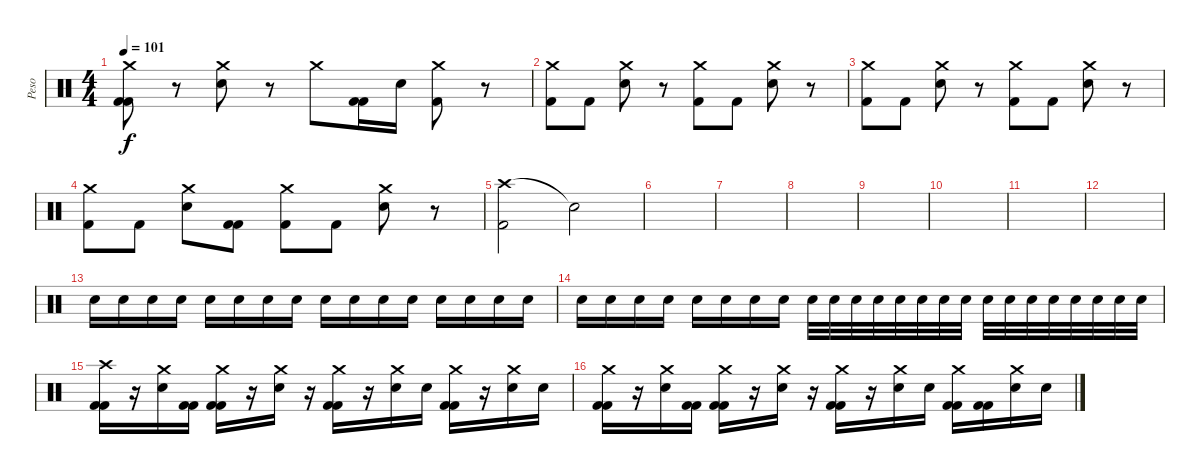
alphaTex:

\track ("Peso" "Peso") {instrument percussion}
\staff {score}
\articulation defaults
\ts (4 4)
\tempo 101
\clef neutral
\ks c
("Crash medium (hit)" "Kick (hit) 2" "Kick (hit) 2").8{dy f} r.8 ("Crash medium (hit)" "Snare (hit) 2").8 r.8 "Crash medium (hit)".8 ("Kick (hit) 2" "Kick (hit) 2").16 "Snare (hit) 2".16 ("Crash medium (hit)" "Kick (hit) 2").8 r.8 |
("Crash medium (hit)" "Kick (hit) 2").8 "Kick (hit) 2".8 ("Crash medium (hit)" "Snare (hit) 2").8 r.8 ("Crash medium (hit)" "Kick (hit) 2").8 "Kick (hit) 2".8 ("Crash medium (hit)" "Snare (hit) 2").8 r.8 |
("Crash medium (hit)" "Kick (hit) 2").8 "Kick (hit) 2".8 ("Crash medium (hit)" "Snare (hit) 2").8 r.8 ("Crash medium (hit)" "Kick (hit) 2").8 "Kick (hit) 2".8 ("Crash medium (hit)" "Snare (hit) 2").8 r.8 |
("Crash medium (hit)" "Kick (hit) 2").8 "Kick (hit) 2".8 ("Crash medium (hit)" "Snare (hit) 2").8 ("Kick (hit) 2" "Kick (hit) 2").8 ("Crash medium (hit)" "Kick (hit) 2").8 "Kick (hit) 2".8 ("Crash medium (hit)" "Snare (hit) 2").8 r.8 |
("Crash high (hit)" "Kick (hit) 2").2 "Snare (hit)"{t}.2 |
|
|
|
|
|
|
|
"Snare (hit) 2".16{volume 8} "Snare (hit) 2".16 "Snare (hit) 2".16 "Snare (hit) 2".16 "Snare (hit) 2".16{volume 10} "Snare (hit) 2".16 "Snare (hit) 2".16 "Snare (hit) 2".16 "Snare (hit) 2".16{volume 12} "Snare (hit) 2".16 "Snare (hit) 2".16 "Snare (hit) 2".16{volume 14} "Snare (hit) 2".16 "Snare (hit) 2".16{volume 15} "Snare (hit) 2".16 "Snare (hit) 2".16 |
"Snare (hit) 2".16 "Snare (hit) 2".16 "Snare (hit) 2".16 "Snare (hit) 2".16 "Snare (hit) 2".16 "Snare (hit) 2".16 "Snare (hit) 2".16 "Snare (hit) 2".16 "Snare (hit) 2".32 "Snare (hit) 2".32 "Snare (hit) 2".32 "Snare (hit) 2".32 "Snare (hit) 2".32 "Snare (hit) 2".32 "Snare (hit) 2".32 "Snare (hit) 2".32 "Snare (hit) 2".32 "Snare (hit) 2".32 "Snare (hit) 2".32 "Snare (hit) 2".32 "Snare (hit) 2".32 "Snare (hit) 2".32 "Snare (hit) 2".32 "Snare (hit) 2".32 |
("Crash high (hit)" "Kick (hit) 2" "Kick (hit) 2").16 r.16 ("Crash medium (hit)" "Snare (hit) 2").16 ("Kick (hit) 2" "Kick (hit) 2").16 ("Crash medium (hit)" "Kick (hit) 2" "Kick (hit) 2").16 r.16 ("Crash medium (hit)" "Snare (hit) 2").16 r.16 ("Crash medium (hit)" "Kick (hit) 2" "Kick (hit) 2").16 r.16 ("Crash medium (hit)" "Snare (hit) 2").16 "Snare (hit) 2".16 ("Crash medium (hit)" "Kick (hit) 2" "Kick (hit) 2").16 r.16 ("Crash medium (hit)" "Snare (hit) 2").16 "Snare (hit) 2".16 |
("Crash medium (hit)" "Kick (hit) 2" "Kick (hit) 2").16 r.16 ("Crash medium (hit)" "Snare (hit) 2").16 ("Kick (hit) 2" "Kick (hit) 2").16 ("Crash medium (hit)" "Kick (hit) 2" "Kick (hit) 2").16 r.16 ("Crash medium (hit)" "Snare (hit) 2").16 r.16 ("Crash medium (hit)" "Kick (hit) 2" "Kick (hit) 2").16 r.16 ("Crash medium (hit)" "Snare (hit) 2").16 "Snare (hit) 2".16 ("Crash medium (hit)" "Kick (hit) 2" "Kick (hit) 2").16 ("Kick (hit) 2" "Kick (hit) 2").16 ("Crash medium (hit)" "Snare (hit) 2").16 "Snare (hit) 2".16
